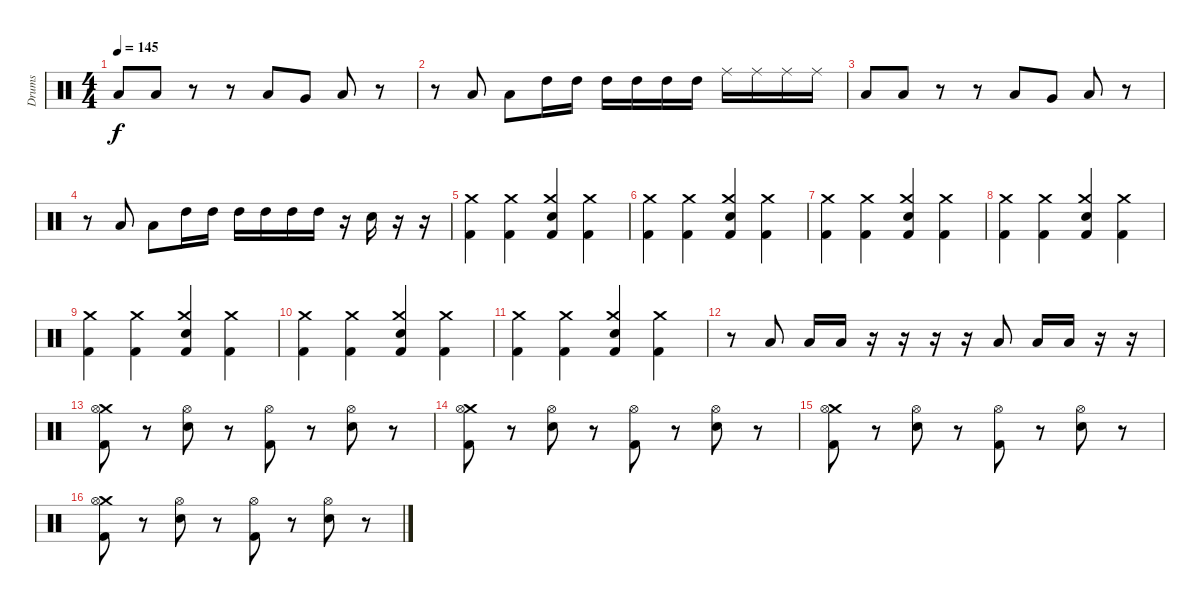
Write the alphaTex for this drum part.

\track ("Drums" "Drums") {instrument percussion}
\staff {score}
\articulation defaults
\ts (4 4)
\section ("" "")
\tempo 145
\clef neutral
\ks c "Low Tom (hit)".8{dy f} "Low Tom (hit)".8
r.8 r.8 "Low Tom (hit)".8 "Very Low Tom (hit)".8 "Low Floor Tom (hit)".8 r.8 |
r.8 "Low Floor Tom (hit)".8 "Low Floor Tom (hit)".8 "High Tom (hit)".16 "High Tom (hit)".16 "High Tom (hit)".16 "High Tom (hit)".16 "High Tom (hit)".16 "High Tom (hit)".16 "Ride (middle)".16 "Ride (middle)".16 "Ride (middle)".16 "Ride (middle)".16 |
"Low Tom (hit)".8 "Low Tom (hit)".8 r.8 r.8 "Low Tom (hit)".8 "Very Low Tom (hit)".8 "Low Floor Tom (hit)".8 r.8 |
r.8 "Low Floor Tom (hit)".8 "Low Floor Tom (hit)".8 "High Tom (hit)".16 "High Tom (hit)".16 "High Tom (hit)".16 "High Tom (hit)".16 "High Tom (hit)".16 "High Tom (hit)".16 r.16 "Electric Snare (hit)".16 r.16 r.16 |
("Crash medium (hit)" "Kick (hit) 2").4 ("Crash medium (hit)" "Kick (hit) 2").4 ("Crash medium (hit)" "Electric Snare (hit)" "Kick (hit) 2").4 ("Crash medium (hit)" "Kick (hit) 2").4 |
("Crash medium (hit)" "Kick (hit) 2").4 ("Crash medium (hit)" "Kick (hit) 2").4 ("Crash medium (hit)" "Electric Snare (hit)" "Kick (hit) 2").4 ("Crash medium (hit)" "Kick (hit) 2").4 |
("Crash medium (hit)" "Kick (hit) 2").4 ("Crash medium (hit)" "Kick (hit) 2").4 ("Crash medium (hit)" "Electric Snare (hit)" "Kick (hit) 2").4 ("Crash medium (hit)" "Kick (hit) 2").4 |
("Crash medium (hit)" "Kick (hit) 2").4 ("Crash medium (hit)" "Kick (hit) 2").4 ("Crash medium (hit)" "Electric Snare (hit)" "Kick (hit) 2").4 ("Crash medium (hit)" "Kick (hit) 2").4 |
("Crash medium (hit)" "Kick (hit) 2").4 ("Crash medium (hit)" "Kick (hit) 2").4 ("Crash medium (hit)" "Electric Snare (hit)" "Kick (hit) 2").4 ("Crash medium (hit)" "Kick (hit) 2").4 |
("Crash medium (hit)" "Kick (hit) 2").4 ("Crash medium (hit)" "Kick (hit) 2").4 ("Crash medium (hit)" "Electric Snare (hit)" "Kick (hit) 2").4 ("Crash medium (hit)" "Kick (hit) 2").4 |
("Crash medium (hit)" "Kick (hit) 2").4 ("Crash medium (hit)" "Kick (hit) 2").4 ("Crash medium (hit)" "Electric Snare (hit)" "Kick (hit) 2").4 ("Crash medium (hit)" "Kick (hit) 2").4 |
r.8 "Low Tom (hit)".8 "Low Floor Tom (hit)".16 "Low Floor Tom (hit)".16 r.16 r.16 r.16 r.16 "Low Tom (hit)".8 "Low Floor Tom (hit)".16 "Low Floor Tom (hit)".16 r.16 r.16 |
("Crash medium (hit)" "Hi-Hat (open)" "Kick (hit) 2").8 r.8 ("Hi-Hat (open)" "Electric Snare (hit)").8 r.8 ("Hi-Hat (open)" "Kick (hit) 2").8 r.8 ("Hi-Hat (open)" "Electric Snare (hit)").8 r.8 |
("Crash medium (hit)" "Hi-Hat (open)" "Kick (hit) 2").8 r.8 ("Hi-Hat (open)" "Electric Snare (hit)").8 r.8 ("Hi-Hat (open)" "Kick (hit) 2").8 r.8 ("Hi-Hat (open)" "Electric Snare (hit)").8 r.8 |
("Crash medium (hit)" "Hi-Hat (open)" "Kick (hit) 2").8 r.8 ("Hi-Hat (open)" "Electric Snare (hit)").8 r.8 ("Hi-Hat (open)" "Kick (hit) 2").8 r.8 ("Hi-Hat (open)" "Electric Snare (hit)").8 r.8 |
("Crash medium (hit)" "Hi-Hat (open)" "Kick (hit) 2").8 r.8 ("Hi-Hat (open)" "Electric Snare (hit)").8 r.8 ("Hi-Hat (open)" "Kick (hit) 2").8 r.8 ("Hi-Hat (open)" "Electric Snare (hit)").8 r.8
